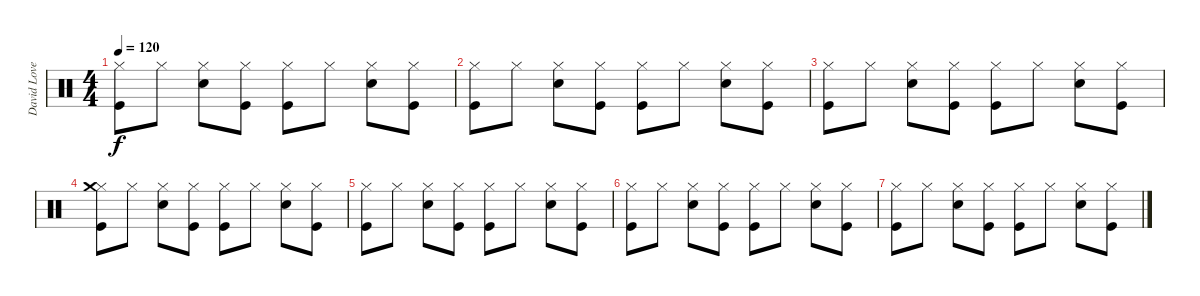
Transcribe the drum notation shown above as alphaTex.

\track ("David Lovering" "David Love") {instrument percussion}
\staff {score}
\articulation defaults
\ts (4 4)
\tempo 120
\clef neutral
\ks c
("Hi-Hat (closed)" "Kick (hit)").8{dy f} "Hi-Hat (closed)".8 ("Hi-Hat (closed)" "Snare (hit) 2").8 ("Hi-Hat (closed)" "Kick (hit)").8 ("Hi-Hat (closed)" "Kick (hit)").8 "Hi-Hat (closed)".8 ("Hi-Hat (closed)" "Snare (hit) 2").8 ("Hi-Hat (closed)" "Kick (hit)").8 |
("Hi-Hat (closed)" "Kick (hit)").8 "Hi-Hat (closed)".8 ("Hi-Hat (closed)" "Snare (hit) 2").8 ("Hi-Hat (closed)" "Kick (hit)").8 ("Hi-Hat (closed)" "Kick (hit)").8 "Hi-Hat (closed)".8 ("Hi-Hat (closed)" "Snare (hit) 2").8 ("Hi-Hat (closed)" "Kick (hit)").8 |
("Hi-Hat (closed)" "Kick (hit)").8 "Hi-Hat (closed)".8 ("Hi-Hat (closed)" "Snare (hit) 2").8 ("Hi-Hat (closed)" "Kick (hit)").8 ("Hi-Hat (closed)" "Kick (hit)").8 "Hi-Hat (closed)".8 ("Hi-Hat (closed)" "Snare (hit) 2").8 ("Hi-Hat (closed)" "Kick (hit)").8 |
("Hi-Hat (closed)" "Crash medium (hit)" "Kick (hit)").8 "Hi-Hat (closed)".8 ("Hi-Hat (closed)" "Snare (hit) 2").8 ("Hi-Hat (closed)" "Kick (hit)").8 ("Hi-Hat (closed)" "Kick (hit)").8 "Hi-Hat (closed)".8 ("Hi-Hat (closed)" "Snare (hit) 2").8 ("Hi-Hat (closed)" "Kick (hit)").8 |
("Hi-Hat (closed)" "Kick (hit)").8 "Hi-Hat (closed)".8 ("Hi-Hat (closed)" "Snare (hit) 2").8 ("Hi-Hat (closed)" "Kick (hit)").8 ("Hi-Hat (closed)" "Kick (hit)").8 "Hi-Hat (closed)".8 ("Hi-Hat (closed)" "Snare (hit) 2").8 ("Hi-Hat (closed)" "Kick (hit)").8 |
("Hi-Hat (closed)" "Kick (hit)").8 "Hi-Hat (closed)".8 ("Hi-Hat (closed)" "Snare (hit) 2").8 ("Hi-Hat (closed)" "Kick (hit)").8 ("Hi-Hat (closed)" "Kick (hit)").8 "Hi-Hat (closed)".8 ("Hi-Hat (closed)" "Snare (hit) 2").8 ("Hi-Hat (closed)" "Kick (hit)").8 |
("Hi-Hat (closed)" "Kick (hit)").8 "Hi-Hat (closed)".8 ("Hi-Hat (closed)" "Snare (hit) 2").8 ("Hi-Hat (closed)" "Kick (hit)").8 ("Hi-Hat (closed)" "Kick (hit)").8 "Hi-Hat (closed)".8 ("Hi-Hat (closed)" "Snare (hit) 2").8 ("Hi-Hat (closed)" "Kick (hit)").8
